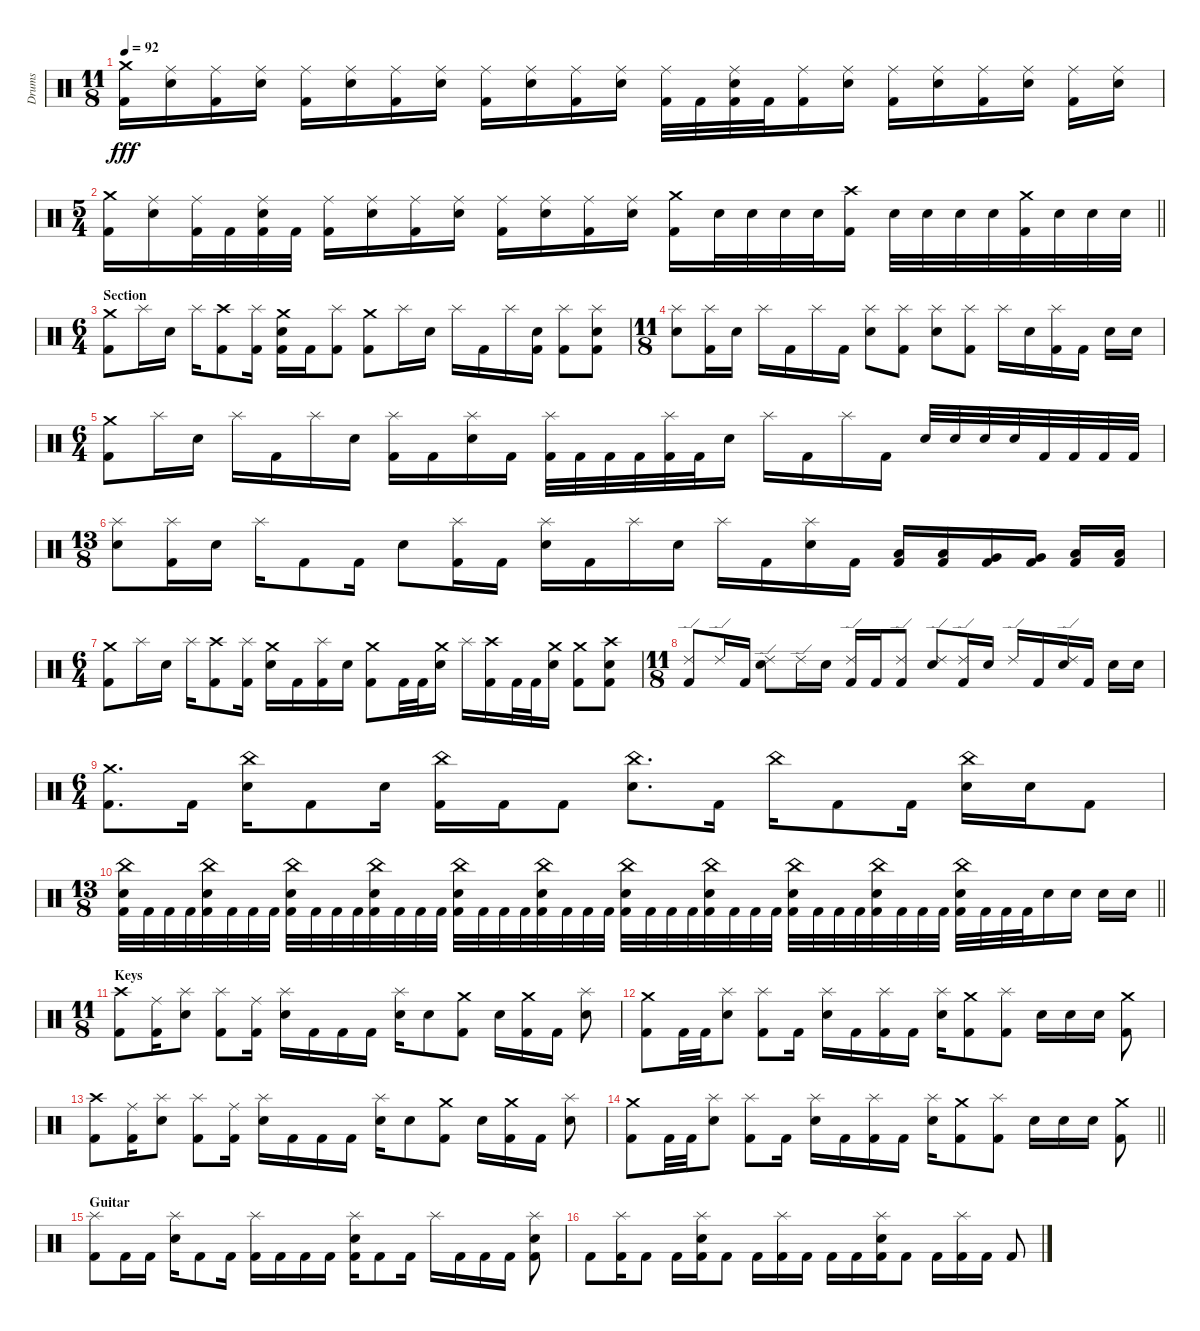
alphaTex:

\track ("Drums" "Drums") {instrument percussion}
\staff {score}
\articulation defaults
\ts (11 8)
\tempo 92
\clef neutral
\ks c
("Crash medium (hit)" "Kick (hit) 2").16{dy fff} ("Ride (middle)" "Snare (hit) 2").16 ("Ride (middle)" "Kick (hit) 2").16 ("Ride (middle)" "Snare (hit) 2").16 ("Ride (middle)" "Kick (hit) 2").16 ("Ride (middle)" "Snare (hit) 2").16 ("Ride (middle)" "Kick (hit) 2").16 ("Ride (middle)" "Snare (hit) 2").16 ("Ride (middle)" "Kick (hit) 2").16 ("Ride (middle)" "Snare (hit) 2").16 ("Ride (middle)" "Kick (hit) 2").16 ("Ride (middle)" "Snare (hit) 2").16 ("Ride (middle)" "Kick (hit) 2").32 "Kick (hit) 2".32 ("Ride (middle)" "Snare (hit) 2" "Kick (hit) 2").32 "Kick (hit) 2".32 ("Ride (middle)" "Kick (hit) 2").16 ("Ride (middle)" "Snare (hit) 2").16 ("Ride (middle)" "Kick (hit) 2").16 ("Ride (middle)" "Snare (hit) 2").16 ("Ride (middle)" "Kick (hit) 2").16 ("Ride (middle)" "Snare (hit) 2").16 ("Ride (middle)" "Kick (hit) 2").16 ("Ride (middle)" "Snare (hit) 2").16 |
\ts (5 4)
\barLineRight lightlight
("Crash medium (hit)" "Kick (hit) 2").16 ("Ride (middle)" "Snare (hit) 2").16 ("Ride (middle)" "Kick (hit) 2").32 "Kick (hit) 2".32 ("Ride (middle)" "Snare (hit) 2" "Kick (hit) 2").32 "Kick (hit) 2".32 ("Ride (middle)" "Kick (hit) 2").16 ("Ride (middle)" "Snare (hit) 2").16 ("Ride (middle)" "Kick (hit) 2").16 ("Ride (middle)" "Snare (hit) 2").16 ("Ride (middle)" "Kick (hit) 2").16 ("Ride (middle)" "Snare (hit) 2").16 ("Ride (middle)" "Kick (hit) 2").16 ("Ride (middle)" "Snare (hit) 2").16 ("Crash medium (hit)" "Kick (hit) 2").16 "Snare (hit) 2".32 "Snare (hit) 2".32 "Snare (hit) 2".32 "Snare (hit) 2".32 ("Crash high (hit)" "Kick (hit) 2").16 "Snare (hit) 2".32 "Snare (hit) 2".32 "Snare (hit) 2".32 "Snare (hit) 2".32 ("Crash medium (hit)" "Kick (hit) 2").32 "Snare (hit) 2".32 "Snare (hit) 2".32 "Snare (hit) 2".32 |
\ts (6 4)
\section ("" "Section")
("Crash medium (hit)" "Kick (hit) 2").8 "Splash (hit)".16 "Snare (hit) 2".16 "Splash (hit)".16 ("Crash high (hit)" "Kick (hit) 2").8 ("Splash (hit)" "Kick (hit) 2").16 ("Crash medium (hit)" "Snare (hit) 2" "Kick (hit) 2").16 "Kick (hit) 2".16 ("Splash (hit)" "Kick (hit) 2").8 ("Crash medium (hit)" "Kick (hit) 2").8 "Splash (hit)".16 "Snare (hit) 2".16 "Splash (hit)".16 "Kick (hit) 2".16 "Splash (hit)".16 ("Snare (hit) 2" "Kick (hit) 2").16 ("Splash (hit)" "Kick (hit) 2").8 ("Splash (hit)" "Snare (hit) 2" "Kick (hit) 2").8 |
\ts (11 8)
("Splash (hit)" "Snare (hit) 2").8 ("Splash (hit)" "Kick (hit) 2").16 "Snare (hit) 2".16 "Splash (hit)".16 "Kick (hit) 2".16 "Splash (hit)".16 "Kick (hit) 2".16 ("Splash (hit)" "Snare (hit) 2").8 ("Splash (hit)" "Kick (hit) 2").8 ("Splash (hit)" "Snare (hit) 2").8 ("Splash (hit)" "Kick (hit) 2").8 "Splash (hit)".16 "Snare (hit) 2".16 ("Splash (hit)" "Kick (hit) 2").16 "Kick (hit) 2".16 "Snare (hit) 2".16 "Snare (hit) 2".16 |
\ts (6 4)
("Crash medium (hit)" "Kick (hit) 2").8 "Splash (hit)".16 "Snare (hit) 2".16 "Splash (hit)".16 "Kick (hit) 2".16 "Splash (hit)".16 "Snare (hit) 2".16 ("Splash (hit)" "Kick (hit) 2").16 "Kick (hit) 2".16 ("Splash (hit)" "Snare (hit) 2").16 "Kick (hit) 2".16 ("Splash (hit)" "Kick (hit) 2").32 "Kick (hit) 2".32 "Kick (hit) 2".32 "Kick (hit) 2".32 ("Splash (hit)" "Kick (hit) 2").32 "Kick (hit) 2".32 "Snare (hit) 2".16 "Splash (hit)".16 "Kick (hit) 2".16 "Splash (hit)".16 "Kick (hit) 2".16 "Snare (hit) 2".32 "Snare (hit) 2".32 "Snare (hit) 2".32 "Snare (hit) 2".32 "Kick (hit) 2".32 "Kick (hit) 2".32 "Kick (hit) 2".32 "Kick (hit) 2".32 |
\ts (13 8)
("Splash (hit)" "Snare (hit) 2").8 ("Splash (hit)" "Kick (hit) 2").16 "Snare (hit) 2".16 "Splash (hit)".16 "Kick (hit) 2".8 "Kick (hit) 2".16 "Snare (hit) 2".8 ("Splash (hit)" "Kick (hit) 2").16 "Kick (hit) 2".16 ("Splash (hit)" "Snare (hit) 2").16 "Kick (hit) 2".16 "Splash (hit)".16 "Snare (hit) 2".16 "Splash (hit)".16 "Kick (hit) 2".16 ("Splash (hit)" "Snare (hit) 2").16 "Kick (hit) 2".16 ("Low Tom (hit)" "Kick (hit) 2").16 ("Low Tom (hit)" "Kick (hit) 2").16 ("Very Low Tom (hit)" "Kick (hit) 2").16 ("Very Low Tom (hit)" "Kick (hit) 2").16 ("Low Floor Tom (hit)" "Kick (hit) 2").16 ("Low Floor Tom (hit)" "Kick (hit) 2").16 |
\ts (6 4)
("Crash medium (hit)" "Kick (hit) 2").8 "Splash (hit)".16 "Snare (hit) 2".16 "Splash (hit)".16 ("Crash high (hit)" "Kick (hit) 2").8 ("Splash (hit)" "Kick (hit) 2").16 ("Crash medium (hit)" "Snare (hit) 2").16 "Kick (hit) 2".16 ("Splash (hit)" "Kick (hit) 2").16 "Snare (hit) 2".16 ("Crash medium (hit)" "Kick (hit) 2").8 "Kick (hit) 2".32 "Kick (hit) 2".32 ("Crash medium (hit)" "Snare (hit) 2").16 "Splash (hit)".16 ("Crash high (hit)" "Kick (hit) 2").16 "Kick (hit) 2".32 "Kick (hit) 2".32 ("Crash medium (hit)" "Snare (hit) 2").16 ("Crash medium (hit)" "Kick (hit) 2").8 ("Crash high (hit)" "Snare (hit) 2" "Kick (hit) 2").8 |
\ts (11 8)
("Ride (edge) 2" "Kick (hit) 2").8 "Ride (edge) 2".16 "Kick (hit) 2".16 ("Ride (edge) 2" "Snare (hit) 2").8 "Ride (edge) 2".16 "Snare (hit) 2".16 ("Ride (edge) 2" "Kick (hit) 2").16 "Kick (hit) 2".16 ("Ride (edge) 2" "Kick (hit) 2").8 ("Ride (edge) 2" "Snare (hit) 2").8 ("Ride (edge) 2" "Kick (hit) 2").16 "Snare (hit) 2".16 "Ride (edge) 2".16 "Kick (hit) 2".16 ("Ride (edge) 2" "Snare (hit) 2").16 "Kick (hit) 2".16 "Snare (hit) 2".16 "Snare (hit) 2".16 |
\ts (6 4)
("Crash medium (hit)" "Kick (hit) 2").8{d} "Kick (hit) 2".16 ("China (hit)" "Snare (hit) 2").16 "Kick (hit) 2".8 "Snare (hit) 2".16 ("China (hit)" "Kick (hit) 2").16 "Kick (hit) 2".16 "Kick (hit) 2".8 ("China (hit)" "Snare (hit) 2").8{d} "Kick (hit) 2".16 "China (hit)".16 "Kick (hit) 2".8 "Kick (hit) 2".16 ("China (hit)" "Snare (hit) 2").16 "Snare (hit) 2".16 "Kick (hit) 2".8 |
\ts (13 8)
\barLineRight lightlight
("China (hit)" "Snare (hit) 2" "Kick (hit) 2").32 "Kick (hit) 2".32 "Kick (hit) 2".32 "Kick (hit) 2".32 ("China (hit)" "Snare (hit) 2" "Kick (hit) 2").32 "Kick (hit) 2".32 "Kick (hit) 2".32 "Kick (hit) 2".32 ("China (hit)" "Snare (hit) 2" "Kick (hit) 2").32 "Kick (hit) 2".32 "Kick (hit) 2".32 "Kick (hit) 2".32 ("China (hit)" "Snare (hit) 2" "Kick (hit) 2").32 "Kick (hit) 2".32 "Kick (hit) 2".32 "Kick (hit) 2".32 ("China (hit)" "Snare (hit) 2" "Kick (hit) 2").32 "Kick (hit) 2".32 "Kick (hit) 2".32 "Kick (hit) 2".32 ("China (hit)" "Snare (hit) 2" "Kick (hit) 2").32 "Kick (hit) 2".32 "Kick (hit) 2".32 "Kick (hit) 2".32 ("China (hit)" "Snare (hit) 2" "Kick (hit) 2").32 "Kick (hit) 2".32 "Kick (hit) 2".32 "Kick (hit) 2".32 ("China (hit)" "Snare (hit) 2" "Kick (hit) 2").32 "Kick (hit) 2".32 "Kick (hit) 2".32 "Kick (hit) 2".32 ("China (hit)" "Snare (hit) 2" "Kick (hit) 2").32 "Kick (hit) 2".32 "Kick (hit) 2".32 "Kick (hit) 2".32 ("China (hit)" "Snare (hit) 2" "Kick (hit) 2").32 "Kick (hit) 2".32 "Kick (hit) 2".32 "Kick (hit) 2".32 ("China (hit)" "Snare (hit) 2" "Kick (hit) 2").32 "Kick (hit) 2".32 "Kick (hit) 2".32 "Kick (hit) 2".32 "Snare (hit) 2".16 "Snare (hit) 2".16 "Snare (hit) 2".16 "Snare (hit) 2".16 |
\ts (11 8)
\section ("" "Keys ")
("Crash high (hit)" "Kick (hit) 2").8 ("Ride (middle)" "Kick (hit) 2").16 ("Splash (hit)" "Snare (hit) 2").8 ("Splash (hit)" "Kick (hit) 2").8 ("Ride (middle)" "Kick (hit) 2").16 ("Splash (hit)" "Snare (hit) 2").16 "Kick (hit) 2".16 "Kick (hit) 2".16 "Kick (hit) 2".16 ("Splash (hit)" "Snare (hit) 2").16 "Snare (hit) 2".8 ("Crash medium (hit)" "Kick (hit) 2").8 "Snare (hit) 2".16 ("Crash medium (hit)" "Kick (hit) 2").16 "Kick (hit) 2".16 ("Splash (hit)" "Snare (hit) 2").8 |
("Crash medium (hit)" "Kick (hit) 2").8 "Kick (hit) 2".32 "Kick (hit) 2".32 ("Splash (hit)" "Snare (hit) 2").8 ("Splash (hit)" "Kick (hit) 2").8 "Kick (hit) 2".16 ("Splash (hit)" "Snare (hit) 2").16 "Kick (hit) 2".16 ("Splash (hit)" "Kick (hit) 2").16 "Kick (hit) 2".16 ("Splash (hit)" "Snare (hit) 2").16 ("Crash medium (hit)" "Kick (hit) 2").8 ("Splash (hit)" "Kick (hit) 2").8 "Snare (hit) 2".16 "Snare (hit) 2".16 "Snare (hit) 2".16 ("Crash medium (hit)" "Kick (hit) 2").8 |
("Crash high (hit)" "Kick (hit) 2").8 ("Ride (middle)" "Kick (hit) 2").16 ("Splash (hit)" "Snare (hit) 2").8 ("Splash (hit)" "Kick (hit) 2").8 ("Ride (middle)" "Kick (hit) 2").16 ("Splash (hit)" "Snare (hit) 2").16 "Kick (hit) 2".16 "Kick (hit) 2".16 "Kick (hit) 2".16 ("Splash (hit)" "Snare (hit) 2").16 "Snare (hit) 2".8 ("Crash medium (hit)" "Kick (hit) 2").8 "Snare (hit) 2".16 ("Crash medium (hit)" "Kick (hit) 2").16 "Kick (hit) 2".16 ("Splash (hit)" "Snare (hit) 2").8 |
\barLineRight lightlight
("Crash medium (hit)" "Kick (hit) 2").8 "Kick (hit) 2".32 "Kick (hit) 2".32 ("Splash (hit)" "Snare (hit) 2").8 ("Splash (hit)" "Kick (hit) 2").8 "Kick (hit) 2".16 ("Splash (hit)" "Snare (hit) 2").16 "Kick (hit) 2".16 ("Splash (hit)" "Kick (hit) 2").16 "Kick (hit) 2".16 ("Splash (hit)" "Snare (hit) 2").16 ("Crash medium (hit)" "Kick (hit) 2").8 ("Splash (hit)" "Kick (hit) 2").8 "Snare (hit) 2".16 "Snare (hit) 2".16 "Snare (hit) 2".16 ("Crash medium (hit)" "Kick (hit) 2").8 |
\section ("" "Guitar")
("Splash (hit)" "Kick (hit) 2").8 "Kick (hit) 2".16 "Kick (hit) 2".16 ("Splash (hit)" "Snare (hit) 2").16 "Kick (hit) 2".8 "Kick (hit) 2".16 ("Splash (hit)" "Kick (hit) 2").16 "Kick (hit) 2".16 "Kick (hit) 2".16 "Kick (hit) 2".16 ("Splash (hit)" "Snare (hit) 2" "Kick (hit) 2").16 "Kick (hit) 2".8 "Kick (hit) 2".16 "Splash (hit)".16 "Kick (hit) 2".16 "Kick (hit) 2".16 "Kick (hit) 2".16 ("Splash (hit)" "Snare (hit) 2" "Kick (hit) 2").8 |
"Kick (hit) 2".8 ("Splash (hit)" "Kick (hit) 2").16 "Kick (hit) 2".8 "Kick (hit) 2".16 ("Splash (hit)" "Snare (hit) 2" "Kick (hit) 2").16 "Kick (hit) 2".8 "Kick (hit) 2".16 ("Splash (hit)" "Kick (hit) 2").16 "Kick (hit) 2".16 "Kick (hit) 2".16 "Kick (hit) 2".16 ("Splash (hit)" "Snare (hit) 2" "Kick (hit) 2").16 "Kick (hit) 2".8 "Kick (hit) 2".16 ("Splash (hit)" "Kick (hit) 2").16 "Kick (hit) 2".16 "Kick (hit) 2".8
